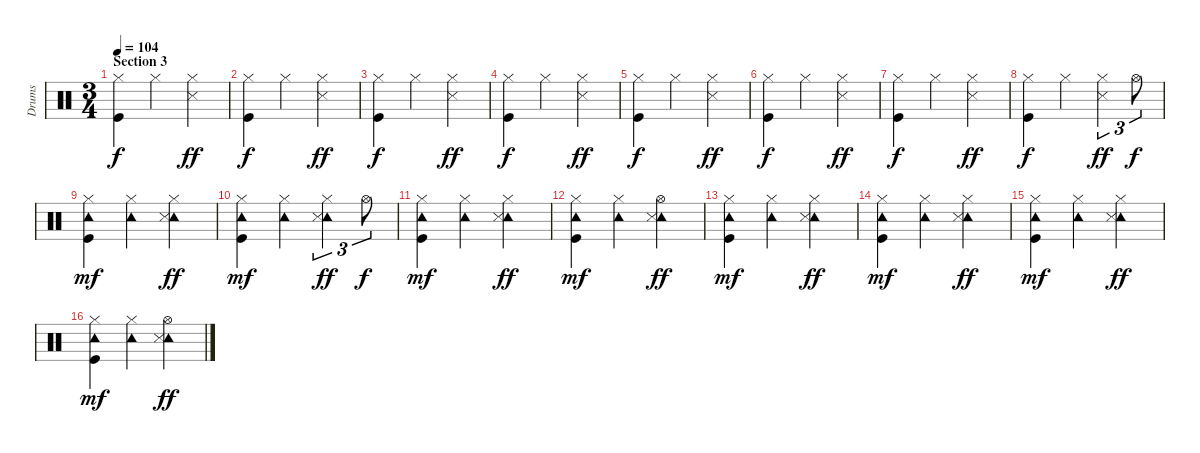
\track ("Drums" "Drums") {instrument percussion}
\staff {score}
\articulation defaults
\ts (3 4)
\section ("" "Section 3")
\tempo 104
\clef neutral
\ks c
("Hi-Hat (closed)" "Kick (hit)").4{dy f volume 10} "Hi-Hat (closed)".4 ("Hi-Hat (closed)" "Snare (side stick) 3").4{dy ff} |
("Hi-Hat (closed)" "Kick (hit)").4{dy f} "Hi-Hat (closed)".4 ("Hi-Hat (closed)" "Snare (side stick) 3").4{dy ff} |
("Hi-Hat (closed)" "Kick (hit)").4{dy f} "Hi-Hat (closed)".4 ("Hi-Hat (closed)" "Snare (side stick) 3").4{dy ff} |
("Hi-Hat (closed)" "Kick (hit)").4{dy f} "Hi-Hat (closed)".4 ("Hi-Hat (closed)" "Snare (side stick) 3").4{dy ff} |
("Hi-Hat (closed)" "Kick (hit)").4{dy f} "Hi-Hat (closed)".4 ("Hi-Hat (closed)" "Snare (side stick) 3").4{dy ff} |
("Hi-Hat (closed)" "Kick (hit)").4{dy f} "Hi-Hat (closed)".4 ("Hi-Hat (closed)" "Snare (side stick) 3").4{dy ff} |
("Hi-Hat (closed)" "Kick (hit)").4{dy f} "Hi-Hat (closed)".4 ("Hi-Hat (closed)" "Snare (side stick) 3").4{dy ff} |
("Hi-Hat (closed)" "Kick (hit)").4{dy f} "Hi-Hat (closed)".4 ("Hi-Hat (closed)" "Snare (side stick) 3").4{tu (3 2) dy ff} "Hi-Hat (open)".8{tu (3 2) dy f} |
("Hi-Hat (closed)" "Tambourine (hit)" "Kick (hit)").4{dy mf} ("Hi-Hat (closed)" "Tambourine (hit)").4 ("Hi-Hat (closed)" "Tambourine (hit)" "Snare (side stick) 3").4{dy ff} |
("Hi-Hat (closed)" "Tambourine (hit)" "Kick (hit)").4{dy mf} ("Hi-Hat (closed)" "Tambourine (hit)").4 ("Hi-Hat (closed)" "Tambourine (hit)" "Snare (side stick) 3").4{tu (3 2) dy ff} "Hi-Hat (open)".8{tu (3 2) dy f} |
("Hi-Hat (closed)" "Tambourine (hit)" "Kick (hit)").4{dy mf} ("Hi-Hat (closed)" "Tambourine (hit)").4 ("Hi-Hat (closed)" "Tambourine (hit)" "Snare (side stick) 3").4{dy ff} |
("Hi-Hat (closed)" "Tambourine (hit)" "Kick (hit)").4{dy mf} ("Hi-Hat (closed)" "Tambourine (hit)").4 ("Hi-Hat (open)" "Tambourine (hit)" "Snare (side stick) 3").4{dy ff} |
("Hi-Hat (closed)" "Tambourine (hit)" "Kick (hit)").4{dy mf} ("Hi-Hat (closed)" "Tambourine (hit)").4 ("Hi-Hat (closed)" "Tambourine (hit)" "Snare (side stick) 3").4{dy ff} |
("Hi-Hat (closed)" "Tambourine (hit)" "Kick (hit)").4{dy mf} ("Hi-Hat (closed)" "Tambourine (hit)").4 ("Hi-Hat (closed)" "Tambourine (hit)" "Snare (side stick) 3").4{dy ff} |
("Hi-Hat (closed)" "Tambourine (hit)" "Kick (hit)").4{dy mf} ("Hi-Hat (closed)" "Tambourine (hit)").4 ("Hi-Hat (closed)" "Tambourine (hit)" "Snare (side stick) 3").4{dy ff} |
("Hi-Hat (closed)" "Tambourine (hit)" "Kick (hit)").4{dy mf} ("Hi-Hat (closed)" "Tambourine (hit)").4 ("Hi-Hat (open)" "Tambourine (hit)" "Snare (side stick) 3").4{dy ff}
